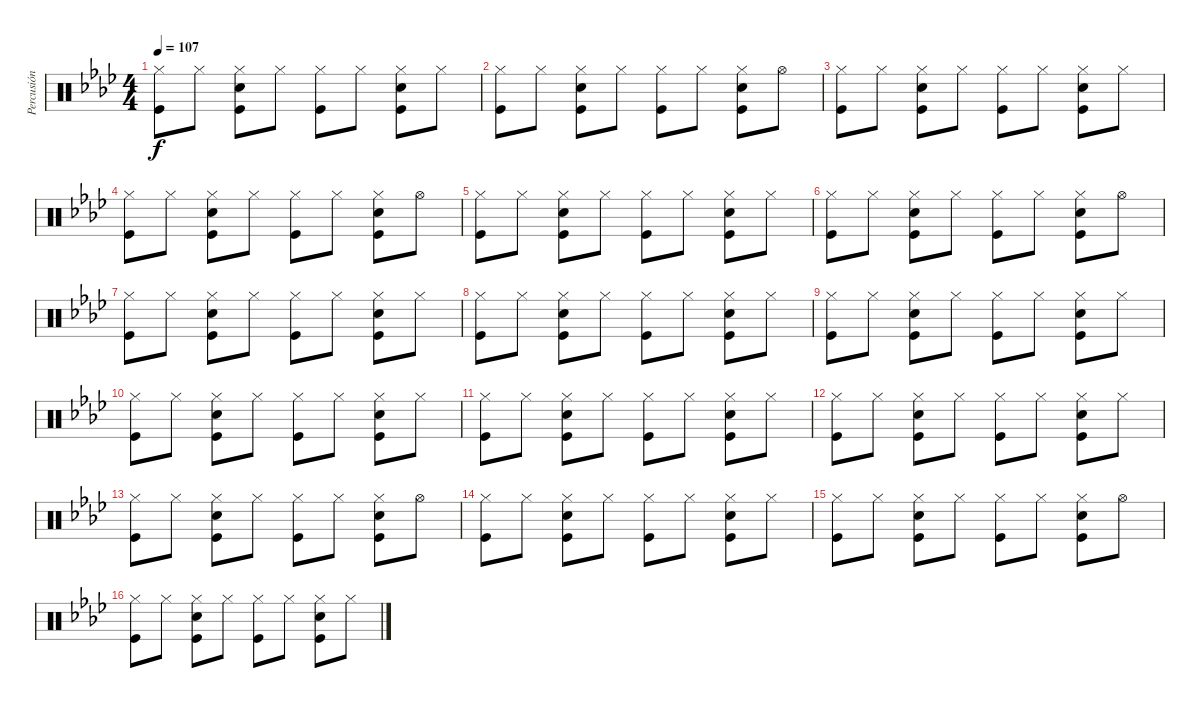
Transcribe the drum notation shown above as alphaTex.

\track ("Percusión" "Percusión") {instrument percussion}
\staff {score}
\articulation defaults
\ts (4 4)
\tempo 107
\clef neutral
\ks ab
("Hi-Hat (closed)" "Kick (hit)").8{dy f} "Hi-Hat (closed)".8 ("Hi-Hat (closed)" "Snare (hit) 2" "Kick (hit)").8 "Hi-Hat (closed)".8 ("Hi-Hat (closed)" "Kick (hit)").8 "Hi-Hat (closed)".8 ("Hi-Hat (closed)" "Snare (hit) 2" "Kick (hit)").8 "Hi-Hat (closed)".8 |
("Hi-Hat (closed)" "Kick (hit)").8 "Hi-Hat (closed)".8 ("Hi-Hat (closed)" "Snare (hit) 2" "Kick (hit)").8 "Hi-Hat (closed)".8 ("Hi-Hat (closed)" "Kick (hit)").8 "Hi-Hat (closed)".8 ("Hi-Hat (closed)" "Snare (hit) 2" "Kick (hit)").8 "Hi-Hat (open)".8 |
("Hi-Hat (closed)" "Kick (hit)").8 "Hi-Hat (closed)".8 ("Hi-Hat (closed)" "Snare (hit) 2" "Kick (hit)").8 "Hi-Hat (closed)".8 ("Hi-Hat (closed)" "Kick (hit)").8 "Hi-Hat (closed)".8 ("Hi-Hat (closed)" "Snare (hit) 2" "Kick (hit)").8 "Hi-Hat (closed)".8 |
("Hi-Hat (closed)" "Kick (hit)").8 "Hi-Hat (closed)".8 ("Hi-Hat (closed)" "Snare (hit) 2" "Kick (hit)").8 "Hi-Hat (closed)".8 ("Hi-Hat (closed)" "Kick (hit)").8 "Hi-Hat (closed)".8 ("Hi-Hat (closed)" "Snare (hit) 2" "Kick (hit)").8 "Hi-Hat (open)".8 |
("Hi-Hat (closed)" "Kick (hit)").8 "Hi-Hat (closed)".8 ("Hi-Hat (closed)" "Snare (hit) 2" "Kick (hit)").8 "Hi-Hat (closed)".8 ("Hi-Hat (closed)" "Kick (hit)").8 "Hi-Hat (closed)".8 ("Hi-Hat (closed)" "Snare (hit) 2" "Kick (hit)").8 "Hi-Hat (closed)".8 |
("Hi-Hat (closed)" "Kick (hit)").8 "Hi-Hat (closed)".8 ("Hi-Hat (closed)" "Snare (hit) 2" "Kick (hit)").8 "Hi-Hat (closed)".8 ("Hi-Hat (closed)" "Kick (hit)").8 "Hi-Hat (closed)".8 ("Hi-Hat (closed)" "Snare (hit) 2" "Kick (hit)").8 "Hi-Hat (open)".8 |
("Hi-Hat (closed)" "Kick (hit)").8 "Hi-Hat (closed)".8 ("Hi-Hat (closed)" "Snare (hit) 2" "Kick (hit)").8 "Hi-Hat (closed)".8 ("Hi-Hat (closed)" "Kick (hit)").8 "Hi-Hat (closed)".8 ("Hi-Hat (closed)" "Snare (hit) 2" "Kick (hit)").8 "Hi-Hat (closed)".8 |
("Hi-Hat (closed)" "Kick (hit)").8 "Hi-Hat (closed)".8 ("Hi-Hat (closed)" "Snare (hit) 2" "Kick (hit)").8 "Hi-Hat (closed)".8 ("Hi-Hat (closed)" "Kick (hit)").8 "Hi-Hat (closed)".8 ("Hi-Hat (closed)" "Snare (hit) 2" "Kick (hit)").8 "Hi-Hat (closed)".8 |
("Hi-Hat (closed)" "Kick (hit)").8 "Hi-Hat (closed)".8 ("Hi-Hat (closed)" "Snare (hit) 2" "Kick (hit)").8 "Hi-Hat (closed)".8 ("Hi-Hat (closed)" "Kick (hit)").8 "Hi-Hat (closed)".8 ("Hi-Hat (closed)" "Snare (hit) 2" "Kick (hit)").8 "Hi-Hat (closed)".8 |
("Hi-Hat (closed)" "Kick (hit)").8 "Hi-Hat (closed)".8 ("Hi-Hat (closed)" "Snare (hit) 2" "Kick (hit)").8 "Hi-Hat (closed)".8 ("Hi-Hat (closed)" "Kick (hit)").8 "Hi-Hat (closed)".8 ("Hi-Hat (closed)" "Snare (hit) 2" "Kick (hit)").8 "Hi-Hat (closed)".8 |
("Hi-Hat (closed)" "Kick (hit)").8 "Hi-Hat (closed)".8 ("Hi-Hat (closed)" "Snare (hit) 2" "Kick (hit)").8 "Hi-Hat (closed)".8 ("Hi-Hat (closed)" "Kick (hit)").8 "Hi-Hat (closed)".8 ("Hi-Hat (closed)" "Snare (hit) 2" "Kick (hit)").8 "Hi-Hat (closed)".8 |
("Hi-Hat (closed)" "Kick (hit)").8 "Hi-Hat (closed)".8 ("Hi-Hat (closed)" "Snare (hit) 2" "Kick (hit)").8 "Hi-Hat (closed)".8 ("Hi-Hat (closed)" "Kick (hit)").8 "Hi-Hat (closed)".8 ("Hi-Hat (closed)" "Snare (hit) 2" "Kick (hit)").8 "Hi-Hat (closed)".8 |
("Hi-Hat (closed)" "Kick (hit)").8 "Hi-Hat (closed)".8 ("Hi-Hat (closed)" "Snare (hit) 2" "Kick (hit)").8 "Hi-Hat (closed)".8 ("Hi-Hat (closed)" "Kick (hit)").8 "Hi-Hat (closed)".8 ("Hi-Hat (closed)" "Snare (hit) 2" "Kick (hit)").8 "Hi-Hat (open)".8 |
("Hi-Hat (closed)" "Kick (hit)").8 "Hi-Hat (closed)".8 ("Hi-Hat (closed)" "Snare (hit) 2" "Kick (hit)").8 "Hi-Hat (closed)".8 ("Hi-Hat (closed)" "Kick (hit)").8 "Hi-Hat (closed)".8 ("Hi-Hat (closed)" "Snare (hit) 2" "Kick (hit)").8 "Hi-Hat (closed)".8 |
("Hi-Hat (closed)" "Kick (hit)").8 "Hi-Hat (closed)".8 ("Hi-Hat (closed)" "Snare (hit) 2" "Kick (hit)").8 "Hi-Hat (closed)".8 ("Hi-Hat (closed)" "Kick (hit)").8 "Hi-Hat (closed)".8 ("Hi-Hat (closed)" "Snare (hit) 2" "Kick (hit)").8 "Hi-Hat (open)".8 |
("Hi-Hat (closed)" "Kick (hit)").8 "Hi-Hat (closed)".8 ("Hi-Hat (closed)" "Snare (hit) 2" "Kick (hit)").8 "Hi-Hat (closed)".8 ("Hi-Hat (closed)" "Kick (hit)").8 "Hi-Hat (closed)".8 ("Hi-Hat (closed)" "Snare (hit) 2" "Kick (hit)").8 "Hi-Hat (closed)".8
